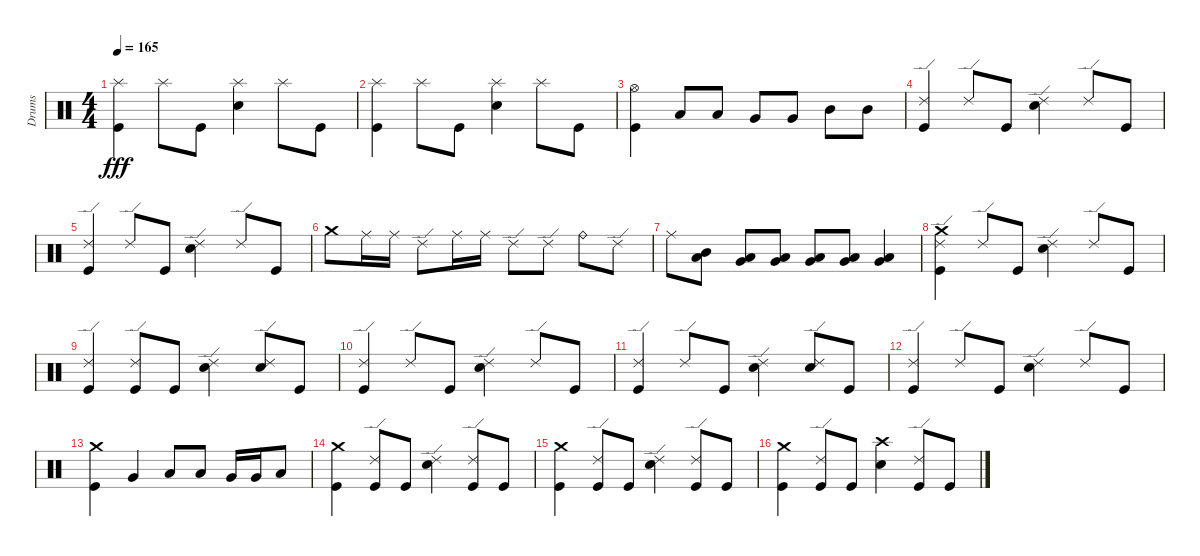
\track ("Drums" "Drums") {instrument percussion}
\staff {score}
\articulation defaults
\ts (4 4)
\tempo 165
\clef neutral
\ks c
("Splash (hit)" "Kick (hit)").4{dy fff} "Splash (hit)".8 "Kick (hit)".8 ("Splash (hit)" "Snare (hit) 2").4 "Splash (hit)".8 "Kick (hit)".8 |
("Splash (hit)" "Kick (hit)").4 "Splash (hit)".8 "Kick (hit)".8 ("Splash (hit)" "Snare (hit) 2").4 "Splash (hit)".8 "Kick (hit)".8 |
("Hi-Hat (open)" "Kick (hit)").4 "Low Tom (hit)".8 "Low Tom (hit)".8 "Very Low Tom (hit)".8 "Very Low Tom (hit)".8 "Mid Tom (hit)".8 "Mid Tom (hit)".8 |
("Ride (edge) 2" "Kick (hit)").4 "Ride (edge) 2".8 "Kick (hit)".8 ("Ride (edge) 2" "Snare (hit) 2").4 "Ride (edge) 2".8 "Kick (hit)".8 |
("Ride (edge) 2" "Kick (hit)").4 "Ride (edge) 2".8 "Kick (hit)".8 ("Ride (edge) 2" "Snare (hit) 2").4 "Ride (edge) 2".8 "Kick (hit)".8 |
"Crash medium (hit)".8 "Ride (middle)".16 "Ride (middle)".16 "Ride (edge) 2".8 "Ride (middle)".16 "Ride (middle)".16 "Ride (edge) 2".8 "Ride (edge) 2".8 "Ride (bell)".8 "Ride (edge) 2".8 |
"Ride (middle)".8 ("Mid Tom (hit)" "Low Tom (hit)").8 ("Low Tom (hit)" "Very Low Tom (hit)").8 ("Low Tom (hit)" "Very Low Tom (hit)").8 ("Low Tom (hit)" "Very Low Tom (hit)").8 ("Very Low Tom (hit)" "Low Floor Tom (hit)").8 ("Very Low Tom (hit)" "Low Floor Tom (hit)").4 |
("Ride (edge) 2" "Crash medium (hit)" "Kick (hit)").4 "Ride (edge) 2".8 "Kick (hit)".8 ("Ride (edge) 2" "Snare (hit) 2").4 "Ride (edge) 2".8 "Kick (hit)".8 |
("Ride (edge) 2" "Kick (hit)").4 ("Ride (edge) 2" "Kick (hit)").8 "Kick (hit)".8 ("Ride (edge) 2" "Snare (hit) 2").4 ("Ride (edge) 2" "Snare (hit) 2").8 "Kick (hit)".8 |
("Ride (edge) 2" "Kick (hit)").4 "Ride (edge) 2".8 "Kick (hit)".8 ("Ride (edge) 2" "Snare (hit) 2").4 "Ride (edge) 2".8 "Kick (hit)".8 |
("Ride (edge) 2" "Kick (hit)").4 "Ride (edge) 2".8 "Kick (hit)".8 ("Ride (edge) 2" "Snare (hit) 2").4 ("Ride (edge) 2" "Snare (hit) 2").8 "Kick (hit)".8 |
("Ride (edge) 2" "Kick (hit)").4 "Ride (edge) 2".8 "Kick (hit)".8 ("Ride (edge) 2" "Snare (hit) 2").4 "Ride (edge) 2".8 "Kick (hit)".8 |
("Crash medium (hit)" "Kick (hit)").4 "Very Low Tom (hit)".4 "Low Tom (hit)".8 "Low Tom (hit)".8 "Very Low Tom (hit)".16 "Very Low Tom (hit)".16 "Low Floor Tom (hit)".8 |
("Crash medium (hit)" "Kick (hit)").4 ("Ride (edge) 2" "Kick (hit)").8 "Kick (hit)".8 ("Ride (edge) 2" "Snare (hit) 2").4 ("Ride (edge) 2" "Kick (hit)").8 "Kick (hit)".8 |
("Crash medium (hit)" "Kick (hit)").4 ("Ride (edge) 2" "Kick (hit)").8 "Kick (hit)".8 ("Ride (edge) 2" "Snare (hit) 2").4 ("Ride (edge) 2" "Kick (hit)").8 "Kick (hit)".8 |
("Crash medium (hit)" "Kick (hit)").4 ("Ride (edge) 2" "Kick (hit)").8 "Kick (hit)".8 ("Crash high (hit)" "Snare (hit) 2").4 ("Ride (edge) 2" "Kick (hit)").8 "Kick (hit)".8
